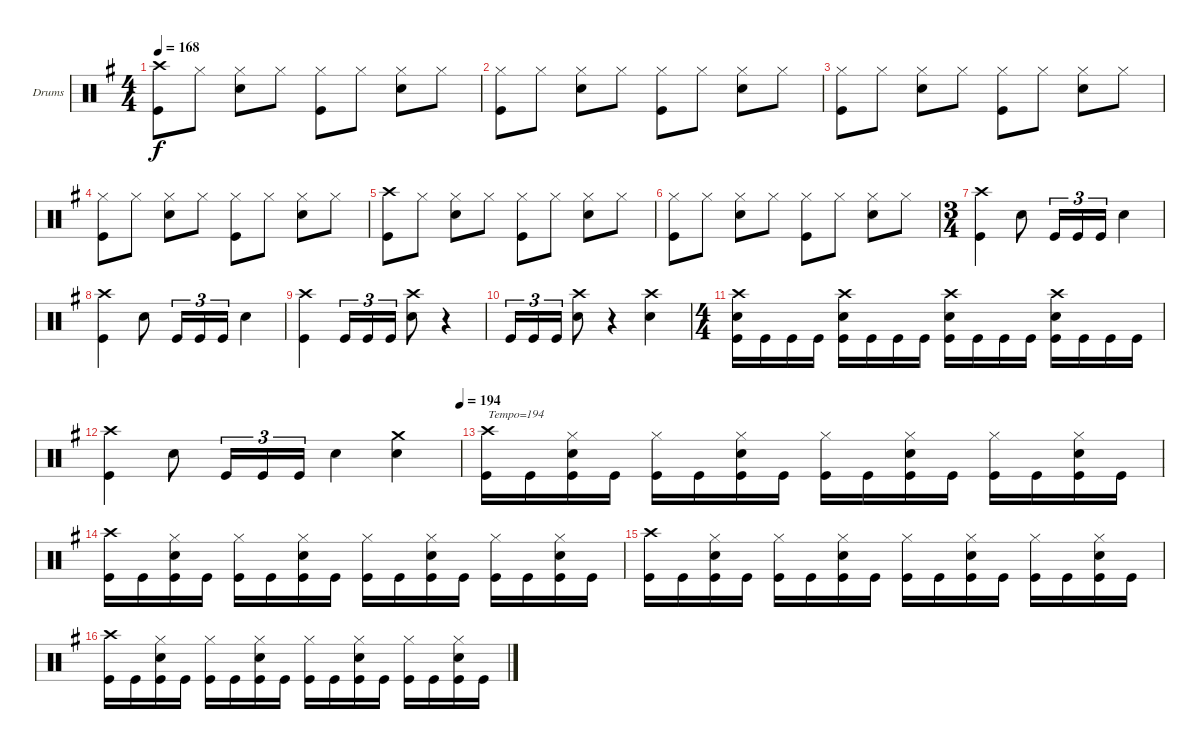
\bracketExtendMode groupsimilarinstruments
\firstSystemTrackNameOrientation horizontal
\otherSystemsTrackNameOrientation horizontal
\track ("Drumkit" "Drums") {instrument percussion}
\staff {score}
\articulation defaults
\ts (4 4)
\tempo 168
\clef neutral
\scale
1.04288
\ks g
("Crash high (hit)" "Kick (hit)").8{dy f} "Hi-Hat (closed)".8 ("Hi-Hat (closed)" "Snare (hit) 2").8 "Hi-Hat (closed)".8 ("Hi-Hat (closed)" "Kick (hit)").8 "Hi-Hat (closed)".8 ("Hi-Hat (closed)" "Snare (hit) 2").8 "Hi-Hat (closed)".8 |
\scale
0.957125 ("Hi-Hat (closed)" "Kick (hit)").8 "Hi-Hat (closed)".8 ("Hi-Hat (closed)" "Snare (hit) 2").8 "Hi-Hat (closed)".8 ("Hi-Hat (closed)" "Kick (hit)").8 "Hi-Hat (closed)".8 ("Hi-Hat (closed)" "Snare (hit) 2").8 "Hi-Hat (closed)".8 |
\scale
1.04288 ("Hi-Hat (closed)" "Kick (hit)").8 "Hi-Hat (closed)".8 ("Hi-Hat (closed)" "Snare (hit) 2").8 "Hi-Hat (closed)".8 ("Hi-Hat (closed)" "Kick (hit)").8 "Hi-Hat (closed)".8 ("Hi-Hat (closed)" "Snare (hit) 2").8 "Hi-Hat (closed)".8 |
\scale
0.957125 ("Hi-Hat (closed)" "Kick (hit)").8 "Hi-Hat (closed)".8 ("Hi-Hat (closed)" "Snare (hit) 2").8 "Hi-Hat (closed)".8 ("Hi-Hat (closed)" "Kick (hit)").8 "Hi-Hat (closed)".8 ("Hi-Hat (closed)" "Snare (hit) 2").8 "Hi-Hat (closed)".8 |
\scale
1.04288 ("Crash high (hit)" "Kick (hit)").8 "Hi-Hat (closed)".8 ("Hi-Hat (closed)" "Snare (hit) 2").8 "Hi-Hat (closed)".8 ("Hi-Hat (closed)" "Kick (hit)").8 "Hi-Hat (closed)".8 ("Hi-Hat (closed)" "Snare (hit) 2").8 "Hi-Hat (closed)".8 |
\scale
0.957125 ("Hi-Hat (closed)" "Kick (hit)").8 "Hi-Hat (closed)".8 ("Hi-Hat (closed)" "Snare (hit) 2").8 "Hi-Hat (closed)".8 ("Hi-Hat (closed)" "Kick (hit)").8 "Hi-Hat (closed)".8 ("Hi-Hat (closed)" "Snare (hit) 2").8 "Hi-Hat (closed)".8 |
\ts (3 4)
\scale
1.07314 ("Crash high (hit)" "Kick (hit)").4 "Snare (hit) 2".8 "Kick (hit)".16{tu (3 2)} "Kick (hit)".16{tu (3 2)} "Kick (hit)".16{tu (3 2)} "Snare (hit) 2".4 |
\scale
0.92686 ("Crash high (hit)" "Kick (hit)").4 "Snare (hit) 2".8 "Kick (hit)".16{tu (3 2)} "Kick (hit)".16{tu (3 2)} "Kick (hit)".16{tu (3 2)} "Snare (hit) 2".4 |
\scale
1.04288 ("Crash high (hit)" "Kick (hit)").4 "Kick (hit)".16{tu (3 2)} "Kick (hit)".16{tu (3 2)} "Kick (hit)".16{tu (3 2)} ("Crash high (hit)" "Snare (hit) 2").8 r.4 |
\scale
0.957125 "Kick (hit)".16{tu (3 2)} "Kick (hit)".16{tu (3 2)} "Kick (hit)".16{tu (3 2)} ("Crash high (hit)" "Snare (hit) 2").8 r.4 ("Crash high (hit)" "Snare (hit) 2").4 |
\ts (4 4)
\scale
1.07314 ("Crash high (hit)" "Snare (hit) 2" "Kick (hit)").16 "Kick (hit)".16 "Kick (hit)".16 "Kick (hit)".16 ("Crash high (hit)" "Snare (hit) 2" "Kick (hit)").16 "Kick (hit)".16 "Kick (hit)".16 "Kick (hit)".16 ("Crash high (hit)" "Snare (hit) 2" "Kick (hit)").16 "Kick (hit)".16 "Kick (hit)".16 "Kick (hit)".16 ("Crash high (hit)" "Snare (hit) 2" "Kick (hit)").16 "Kick (hit)".16 "Kick (hit)".16 "Kick (hit)".16 |
\tempo (194 1)
\scale
0.92686 ("Crash high (hit)" "Kick (hit)").4 "Snare (hit) 2".8 "Kick (hit)".16{tu (3 2)} "Kick (hit)".16{tu (3 2)} "Kick (hit)".16{tu (3 2)} "Snare (hit) 2".4 ("Crash medium (hit)" "Snare (hit) 2").4 |
\scale
1.04288 ("Crash high (hit)" "Kick (hit)").16{txt "Tempo=194"} "Kick (hit)".16 ("Hi-Hat (closed)" "Snare (hit) 2" "Kick (hit)").16 "Kick (hit)".16 ("Hi-Hat (closed)" "Kick (hit)").16 "Kick (hit)".16 ("Hi-Hat (closed)" "Snare (hit) 2" "Kick (hit)").16 "Kick (hit)".16 ("Hi-Hat (closed)" "Kick (hit)").16 "Kick (hit)".16 ("Hi-Hat (closed)" "Snare (hit) 2" "Kick (hit)").16 "Kick (hit)".16 ("Hi-Hat (closed)" "Kick (hit)").16 "Kick (hit)".16 ("Hi-Hat (closed)" "Snare (hit) 2" "Kick (hit)").16 "Kick (hit)".16 |
\scale
0.957125 ("Crash high (hit)" "Kick (hit)").16 "Kick (hit)".16 ("Hi-Hat (closed)" "Snare (hit) 2" "Kick (hit)").16 "Kick (hit)".16 ("Hi-Hat (closed)" "Kick (hit)").16 "Kick (hit)".16 ("Hi-Hat (closed)" "Snare (hit) 2" "Kick (hit)").16 "Kick (hit)".16 ("Hi-Hat (closed)" "Kick (hit)").16 "Kick (hit)".16 ("Hi-Hat (closed)" "Snare (hit) 2" "Kick (hit)").16 "Kick (hit)".16 ("Hi-Hat (closed)" "Kick (hit)").16 "Kick (hit)".16 ("Hi-Hat (closed)" "Snare (hit) 2" "Kick (hit)").16 "Kick (hit)".16 |
\scale
1.04288 ("Crash high (hit)" "Kick (hit)").16 "Kick (hit)".16 ("Hi-Hat (closed)" "Snare (hit) 2" "Kick (hit)").16 "Kick (hit)".16 ("Hi-Hat (closed)" "Kick (hit)").16 "Kick (hit)".16 ("Hi-Hat (closed)" "Snare (hit) 2" "Kick (hit)").16 "Kick (hit)".16 ("Hi-Hat (closed)" "Kick (hit)").16 "Kick (hit)".16 ("Hi-Hat (closed)" "Snare (hit) 2" "Kick (hit)").16 "Kick (hit)".16 ("Hi-Hat (closed)" "Kick (hit)").16 "Kick (hit)".16 ("Hi-Hat (closed)" "Snare (hit) 2" "Kick (hit)").16 "Kick (hit)".16 |
\scale
0.957125 ("Crash high (hit)" "Kick (hit)").16 "Kick (hit)".16 ("Hi-Hat (closed)" "Snare (hit) 2" "Kick (hit)").16 "Kick (hit)".16 ("Hi-Hat (closed)" "Kick (hit)").16 "Kick (hit)".16 ("Hi-Hat (closed)" "Snare (hit) 2" "Kick (hit)").16 "Kick (hit)".16 ("Hi-Hat (closed)" "Kick (hit)").16 "Kick (hit)".16 ("Hi-Hat (closed)" "Snare (hit) 2" "Kick (hit)").16 "Kick (hit)".16 ("Hi-Hat (closed)" "Kick (hit)").16 "Kick (hit)".16 ("Hi-Hat (closed)" "Snare (hit) 2" "Kick (hit)").16 "Kick (hit)".16
